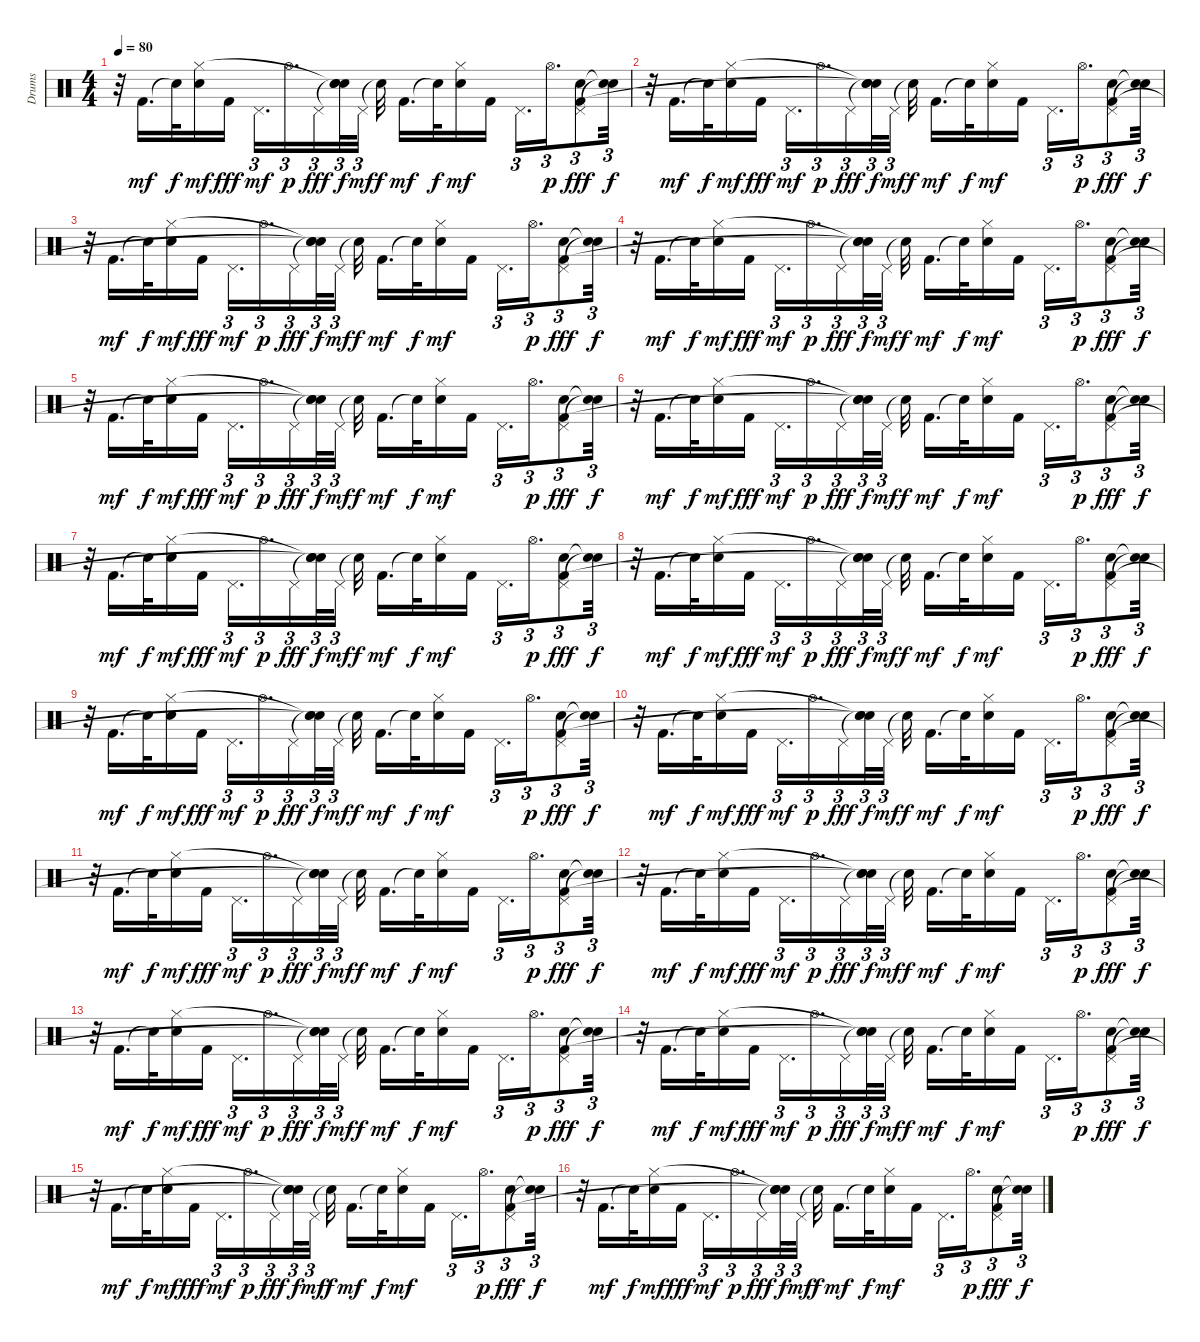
\track ("Drums" "Drums") {instrument percussion}
\staff {score}
\articulation defaults
\ts (4 4)
\tempo 80
\clef neutral
\ks c
r.32{dy f} "Kick (hit) 2".16{d dy mf} "Snare (hit)"{t}.32{dy f} ("Electric Snare (hit)" "Hi-Hat (closed)").16{dy mf} "Kick (hit) 2".16{dy fff} "Pedal Hi-Hat (hit)".16{d tu (3 2) dy mf} "Hi-Hat (open)".16{d tu (3 2) dy p} "Pedal Hi-Hat (hit)".16{tu (3 2) dy fff} ("Snare (hit)"{t} "Snare (hit)"{t} "Snare (hit)"{t}).32{tu (3 2) dy f beam splitsecondary} "Pedal Hi-Hat (hit)".32{tu (3 2) dy mf} "Snare (hit)"{t}.32{dy f} "Kick (hit) 2".16{d dy mf} "Snare (hit)"{t}.32{dy f} ("Electric Snare (hit)" "Hi-Hat (closed)").16{dy mf} "Kick (hit) 2".16 "Pedal Hi-Hat (hit)".16{d tu (3 2)} "Hi-Hat (open)".16{d tu (3 2) dy p} ("Electric Snare (hit)" "Pedal Hi-Hat (hit)" "Kick (hit) 2").8{tu (3 2) dy fff} ("Snare (hit)"{t} "Snare (hit)"{t}).32{tu (3 2) dy f} |
r.32 "Kick (hit) 2".16{d dy mf} "Snare (hit)"{t}.32{dy f} ("Electric Snare (hit)" "Hi-Hat (closed)").16{dy mf} "Kick (hit) 2".16{dy fff} "Pedal Hi-Hat (hit)".16{d tu (3 2) dy mf} "Hi-Hat (open)".16{d tu (3 2) dy p} "Pedal Hi-Hat (hit)".16{tu (3 2) dy fff} ("Snare (hit)"{t} "Snare (hit)"{t} "Snare (hit)"{t}).32{tu (3 2) dy f beam splitsecondary} "Pedal Hi-Hat (hit)".32{tu (3 2) dy mf} "Snare (hit)"{t}.32{dy f} "Kick (hit) 2".16{d dy mf} "Snare (hit)"{t}.32{dy f} ("Electric Snare (hit)" "Hi-Hat (closed)").16{dy mf} "Kick (hit) 2".16 "Pedal Hi-Hat (hit)".16{d tu (3 2)} "Hi-Hat (open)".16{d tu (3 2) dy p} ("Electric Snare (hit)" "Pedal Hi-Hat (hit)" "Kick (hit) 2").8{tu (3 2) dy fff} ("Snare (hit)"{t} "Snare (hit)"{t}).32{tu (3 2) dy f} |
r.32 "Kick (hit) 2".16{d dy mf} "Snare (hit)"{t}.32{dy f} ("Electric Snare (hit)" "Hi-Hat (closed)").16{dy mf} "Kick (hit) 2".16{dy fff} "Pedal Hi-Hat (hit)".16{d tu (3 2) dy mf} "Hi-Hat (open)".16{d tu (3 2) dy p} "Pedal Hi-Hat (hit)".16{tu (3 2) dy fff} ("Snare (hit)"{t} "Snare (hit)"{t} "Snare (hit)"{t}).32{tu (3 2) dy f beam splitsecondary} "Pedal Hi-Hat (hit)".32{tu (3 2) dy mf} "Snare (hit)"{t}.32{dy f} "Kick (hit) 2".16{d dy mf} "Snare (hit)"{t}.32{dy f} ("Electric Snare (hit)" "Hi-Hat (closed)").16{dy mf} "Kick (hit) 2".16 "Pedal Hi-Hat (hit)".16{d tu (3 2)} "Hi-Hat (open)".16{d tu (3 2) dy p} ("Electric Snare (hit)" "Pedal Hi-Hat (hit)" "Kick (hit) 2").8{tu (3 2) dy fff} ("Snare (hit)"{t} "Snare (hit)"{t}).32{tu (3 2) dy f} |
r.32 "Kick (hit) 2".16{d dy mf} "Snare (hit)"{t}.32{dy f} ("Electric Snare (hit)" "Hi-Hat (closed)").16{dy mf} "Kick (hit) 2".16{dy fff} "Pedal Hi-Hat (hit)".16{d tu (3 2) dy mf} "Hi-Hat (open)".16{d tu (3 2) dy p} "Pedal Hi-Hat (hit)".16{tu (3 2) dy fff} ("Snare (hit)"{t} "Snare (hit)"{t} "Snare (hit)"{t}).32{tu (3 2) dy f beam splitsecondary} "Pedal Hi-Hat (hit)".32{tu (3 2) dy mf} "Snare (hit)"{t}.32{dy f} "Kick (hit) 2".16{d dy mf} "Snare (hit)"{t}.32{dy f} ("Electric Snare (hit)" "Hi-Hat (closed)").16{dy mf} "Kick (hit) 2".16 "Pedal Hi-Hat (hit)".16{d tu (3 2)} "Hi-Hat (open)".16{d tu (3 2) dy p} ("Electric Snare (hit)" "Pedal Hi-Hat (hit)" "Kick (hit) 2").8{tu (3 2) dy fff} ("Snare (hit)"{t} "Snare (hit)"{t}).32{tu (3 2) dy f} |
r.32 "Kick (hit) 2".16{d dy mf} "Snare (hit)"{t}.32{dy f} ("Electric Snare (hit)" "Hi-Hat (closed)").16{dy mf} "Kick (hit) 2".16{dy fff} "Pedal Hi-Hat (hit)".16{d tu (3 2) dy mf} "Hi-Hat (open)".16{d tu (3 2) dy p} "Pedal Hi-Hat (hit)".16{tu (3 2) dy fff} ("Snare (hit)"{t} "Snare (hit)"{t} "Snare (hit)"{t}).32{tu (3 2) dy f beam splitsecondary} "Pedal Hi-Hat (hit)".32{tu (3 2) dy mf} "Snare (hit)"{t}.32{dy f} "Kick (hit) 2".16{d dy mf} "Snare (hit)"{t}.32{dy f} ("Electric Snare (hit)" "Hi-Hat (closed)").16{dy mf} "Kick (hit) 2".16 "Pedal Hi-Hat (hit)".16{d tu (3 2)} "Hi-Hat (open)".16{d tu (3 2) dy p} ("Electric Snare (hit)" "Pedal Hi-Hat (hit)" "Kick (hit) 2").8{tu (3 2) dy fff} ("Snare (hit)"{t} "Snare (hit)"{t}).32{tu (3 2) dy f} |
r.32 "Kick (hit) 2".16{d dy mf} "Snare (hit)"{t}.32{dy f} ("Electric Snare (hit)" "Hi-Hat (closed)").16{dy mf} "Kick (hit) 2".16{dy fff} "Pedal Hi-Hat (hit)".16{d tu (3 2) dy mf} "Hi-Hat (open)".16{d tu (3 2) dy p} "Pedal Hi-Hat (hit)".16{tu (3 2) dy fff} ("Snare (hit)"{t} "Snare (hit)"{t} "Snare (hit)"{t}).32{tu (3 2) dy f beam splitsecondary} "Pedal Hi-Hat (hit)".32{tu (3 2) dy mf} "Snare (hit)"{t}.32{dy f} "Kick (hit) 2".16{d dy mf} "Snare (hit)"{t}.32{dy f} ("Electric Snare (hit)" "Hi-Hat (closed)").16{dy mf} "Kick (hit) 2".16 "Pedal Hi-Hat (hit)".16{d tu (3 2)} "Hi-Hat (open)".16{d tu (3 2) dy p} ("Electric Snare (hit)" "Pedal Hi-Hat (hit)" "Kick (hit) 2").8{tu (3 2) dy fff} ("Snare (hit)"{t} "Snare (hit)"{t}).32{tu (3 2) dy f} |
r.32 "Kick (hit) 2".16{d dy mf} "Snare (hit)"{t}.32{dy f} ("Electric Snare (hit)" "Hi-Hat (closed)").16{dy mf} "Kick (hit) 2".16{dy fff} "Pedal Hi-Hat (hit)".16{d tu (3 2) dy mf} "Hi-Hat (open)".16{d tu (3 2) dy p} "Pedal Hi-Hat (hit)".16{tu (3 2) dy fff} ("Snare (hit)"{t} "Snare (hit)"{t} "Snare (hit)"{t}).32{tu (3 2) dy f beam splitsecondary} "Pedal Hi-Hat (hit)".32{tu (3 2) dy mf} "Snare (hit)"{t}.32{dy f} "Kick (hit) 2".16{d dy mf} "Snare (hit)"{t}.32{dy f} ("Electric Snare (hit)" "Hi-Hat (closed)").16{dy mf} "Kick (hit) 2".16 "Pedal Hi-Hat (hit)".16{d tu (3 2)} "Hi-Hat (open)".16{d tu (3 2) dy p} ("Electric Snare (hit)" "Pedal Hi-Hat (hit)" "Kick (hit) 2").8{tu (3 2) dy fff} ("Snare (hit)"{t} "Snare (hit)"{t}).32{tu (3 2) dy f} |
r.32 "Kick (hit) 2".16{d dy mf} "Snare (hit)"{t}.32{dy f} ("Electric Snare (hit)" "Hi-Hat (closed)").16{dy mf} "Kick (hit) 2".16{dy fff} "Pedal Hi-Hat (hit)".16{d tu (3 2) dy mf} "Hi-Hat (open)".16{d tu (3 2) dy p} "Pedal Hi-Hat (hit)".16{tu (3 2) dy fff} ("Snare (hit)"{t} "Snare (hit)"{t} "Snare (hit)"{t}).32{tu (3 2) dy f beam splitsecondary} "Pedal Hi-Hat (hit)".32{tu (3 2) dy mf} "Snare (hit)"{t}.32{dy f} "Kick (hit) 2".16{d dy mf} "Snare (hit)"{t}.32{dy f} ("Electric Snare (hit)" "Hi-Hat (closed)").16{dy mf} "Kick (hit) 2".16 "Pedal Hi-Hat (hit)".16{d tu (3 2)} "Hi-Hat (open)".16{d tu (3 2) dy p} ("Electric Snare (hit)" "Pedal Hi-Hat (hit)" "Kick (hit) 2").8{tu (3 2) dy fff} ("Snare (hit)"{t} "Snare (hit)"{t}).32{tu (3 2) dy f} |
r.32 "Kick (hit) 2".16{d dy mf} "Snare (hit)"{t}.32{dy f} ("Electric Snare (hit)" "Hi-Hat (closed)").16{dy mf} "Kick (hit) 2".16{dy fff} "Pedal Hi-Hat (hit)".16{d tu (3 2) dy mf} "Hi-Hat (open)".16{d tu (3 2) dy p} "Pedal Hi-Hat (hit)".16{tu (3 2) dy fff} ("Snare (hit)"{t} "Snare (hit)"{t} "Snare (hit)"{t}).32{tu (3 2) dy f beam splitsecondary} "Pedal Hi-Hat (hit)".32{tu (3 2) dy mf} "Snare (hit)"{t}.32{dy f} "Kick (hit) 2".16{d dy mf} "Snare (hit)"{t}.32{dy f} ("Electric Snare (hit)" "Hi-Hat (closed)").16{dy mf} "Kick (hit) 2".16 "Pedal Hi-Hat (hit)".16{d tu (3 2)} "Hi-Hat (open)".16{d tu (3 2) dy p} ("Electric Snare (hit)" "Pedal Hi-Hat (hit)" "Kick (hit) 2").8{tu (3 2) dy fff} ("Snare (hit)"{t} "Snare (hit)"{t}).32{tu (3 2) dy f} |
r.32 "Kick (hit) 2".16{d dy mf} "Snare (hit)"{t}.32{dy f} ("Electric Snare (hit)" "Hi-Hat (closed)").16{dy mf} "Kick (hit) 2".16{dy fff} "Pedal Hi-Hat (hit)".16{d tu (3 2) dy mf} "Hi-Hat (open)".16{d tu (3 2) dy p} "Pedal Hi-Hat (hit)".16{tu (3 2) dy fff} ("Snare (hit)"{t} "Snare (hit)"{t} "Snare (hit)"{t}).32{tu (3 2) dy f beam splitsecondary} "Pedal Hi-Hat (hit)".32{tu (3 2) dy mf} "Snare (hit)"{t}.32{dy f} "Kick (hit) 2".16{d dy mf} "Snare (hit)"{t}.32{dy f} ("Electric Snare (hit)" "Hi-Hat (closed)").16{dy mf} "Kick (hit) 2".16 "Pedal Hi-Hat (hit)".16{d tu (3 2)} "Hi-Hat (open)".16{d tu (3 2) dy p} ("Electric Snare (hit)" "Pedal Hi-Hat (hit)" "Kick (hit) 2").8{tu (3 2) dy fff} ("Snare (hit)"{t} "Snare (hit)"{t}).32{tu (3 2) dy f} |
r.32 "Kick (hit) 2".16{d dy mf} "Snare (hit)"{t}.32{dy f} ("Electric Snare (hit)" "Hi-Hat (closed)").16{dy mf} "Kick (hit) 2".16{dy fff} "Pedal Hi-Hat (hit)".16{d tu (3 2) dy mf} "Hi-Hat (open)".16{d tu (3 2) dy p} "Pedal Hi-Hat (hit)".16{tu (3 2) dy fff} ("Snare (hit)"{t} "Snare (hit)"{t} "Snare (hit)"{t}).32{tu (3 2) dy f beam splitsecondary} "Pedal Hi-Hat (hit)".32{tu (3 2) dy mf} "Snare (hit)"{t}.32{dy f} "Kick (hit) 2".16{d dy mf} "Snare (hit)"{t}.32{dy f} ("Electric Snare (hit)" "Hi-Hat (closed)").16{dy mf} "Kick (hit) 2".16 "Pedal Hi-Hat (hit)".16{d tu (3 2)} "Hi-Hat (open)".16{d tu (3 2) dy p} ("Electric Snare (hit)" "Pedal Hi-Hat (hit)" "Kick (hit) 2").8{tu (3 2) dy fff} ("Snare (hit)"{t} "Snare (hit)"{t}).32{tu (3 2) dy f} |
r.32 "Kick (hit) 2".16{d dy mf} "Snare (hit)"{t}.32{dy f} ("Electric Snare (hit)" "Hi-Hat (closed)").16{dy mf} "Kick (hit) 2".16{dy fff} "Pedal Hi-Hat (hit)".16{d tu (3 2) dy mf} "Hi-Hat (open)".16{d tu (3 2) dy p} "Pedal Hi-Hat (hit)".16{tu (3 2) dy fff} ("Snare (hit)"{t} "Snare (hit)"{t} "Snare (hit)"{t}).32{tu (3 2) dy f beam splitsecondary} "Pedal Hi-Hat (hit)".32{tu (3 2) dy mf} "Snare (hit)"{t}.32{dy f} "Kick (hit) 2".16{d dy mf} "Snare (hit)"{t}.32{dy f} ("Electric Snare (hit)" "Hi-Hat (closed)").16{dy mf} "Kick (hit) 2".16 "Pedal Hi-Hat (hit)".16{d tu (3 2)} "Hi-Hat (open)".16{d tu (3 2) dy p} ("Electric Snare (hit)" "Pedal Hi-Hat (hit)" "Kick (hit) 2").8{tu (3 2) dy fff} ("Snare (hit)"{t} "Snare (hit)"{t}).32{tu (3 2) dy f} |
r.32 "Kick (hit) 2".16{d dy mf} "Snare (hit)"{t}.32{dy f} ("Electric Snare (hit)" "Hi-Hat (closed)").16{dy mf} "Kick (hit) 2".16{dy fff} "Pedal Hi-Hat (hit)".16{d tu (3 2) dy mf} "Hi-Hat (open)".16{d tu (3 2) dy p} "Pedal Hi-Hat (hit)".16{tu (3 2) dy fff} ("Snare (hit)"{t} "Snare (hit)"{t} "Snare (hit)"{t}).32{tu (3 2) dy f beam splitsecondary} "Pedal Hi-Hat (hit)".32{tu (3 2) dy mf} "Snare (hit)"{t}.32{dy f} "Kick (hit) 2".16{d dy mf} "Snare (hit)"{t}.32{dy f} ("Electric Snare (hit)" "Hi-Hat (closed)").16{dy mf} "Kick (hit) 2".16 "Pedal Hi-Hat (hit)".16{d tu (3 2)} "Hi-Hat (open)".16{d tu (3 2) dy p} ("Electric Snare (hit)" "Pedal Hi-Hat (hit)" "Kick (hit) 2").8{tu (3 2) dy fff} ("Snare (hit)"{t} "Snare (hit)"{t}).32{tu (3 2) dy f} |
r.32 "Kick (hit) 2".16{d dy mf} "Snare (hit)"{t}.32{dy f} ("Electric Snare (hit)" "Hi-Hat (closed)").16{dy mf} "Kick (hit) 2".16{dy fff} "Pedal Hi-Hat (hit)".16{d tu (3 2) dy mf} "Hi-Hat (open)".16{d tu (3 2) dy p} "Pedal Hi-Hat (hit)".16{tu (3 2) dy fff} ("Snare (hit)"{t} "Snare (hit)"{t} "Snare (hit)"{t}).32{tu (3 2) dy f beam splitsecondary} "Pedal Hi-Hat (hit)".32{tu (3 2) dy mf} "Snare (hit)"{t}.32{dy f} "Kick (hit) 2".16{d dy mf} "Snare (hit)"{t}.32{dy f} ("Electric Snare (hit)" "Hi-Hat (closed)").16{dy mf} "Kick (hit) 2".16 "Pedal Hi-Hat (hit)".16{d tu (3 2)} "Hi-Hat (open)".16{d tu (3 2) dy p} ("Electric Snare (hit)" "Pedal Hi-Hat (hit)" "Kick (hit) 2").8{tu (3 2) dy fff} ("Snare (hit)"{t} "Snare (hit)"{t}).32{tu (3 2) dy f} |
r.32 "Kick (hit) 2".16{d dy mf} "Snare (hit)"{t}.32{dy f} ("Electric Snare (hit)" "Hi-Hat (closed)").16{dy mf} "Kick (hit) 2".16{dy fff} "Pedal Hi-Hat (hit)".16{d tu (3 2) dy mf} "Hi-Hat (open)".16{d tu (3 2) dy p} "Pedal Hi-Hat (hit)".16{tu (3 2) dy fff} ("Snare (hit)"{t} "Snare (hit)"{t} "Snare (hit)"{t}).32{tu (3 2) dy f beam splitsecondary} "Pedal Hi-Hat (hit)".32{tu (3 2) dy mf} "Snare (hit)"{t}.32{dy f} "Kick (hit) 2".16{d dy mf} "Snare (hit)"{t}.32{dy f} ("Electric Snare (hit)" "Hi-Hat (closed)").16{dy mf} "Kick (hit) 2".16 "Pedal Hi-Hat (hit)".16{d tu (3 2)} "Hi-Hat (open)".16{d tu (3 2) dy p} ("Electric Snare (hit)" "Pedal Hi-Hat (hit)" "Kick (hit) 2").8{tu (3 2) dy fff} ("Snare (hit)"{t} "Snare (hit)"{t}).32{tu (3 2) dy f} |
r.32 "Kick (hit) 2".16{d dy mf} "Snare (hit)"{t}.32{dy f} ("Electric Snare (hit)" "Hi-Hat (closed)").16{dy mf} "Kick (hit) 2".16{dy fff} "Pedal Hi-Hat (hit)".16{d tu (3 2) dy mf} "Hi-Hat (open)".16{d tu (3 2) dy p} "Pedal Hi-Hat (hit)".16{tu (3 2) dy fff} ("Snare (hit)"{t} "Snare (hit)"{t} "Snare (hit)"{t}).32{tu (3 2) dy f beam splitsecondary} "Pedal Hi-Hat (hit)".32{tu (3 2) dy mf} "Snare (hit)"{t}.32{dy f} "Kick (hit) 2".16{d dy mf} "Snare (hit)"{t}.32{dy f} ("Electric Snare (hit)" "Hi-Hat (closed)").16{dy mf} "Kick (hit) 2".16 "Pedal Hi-Hat (hit)".16{d tu (3 2)} "Hi-Hat (open)".16{d tu (3 2) dy p} ("Electric Snare (hit)" "Pedal Hi-Hat (hit)" "Kick (hit) 2").8{tu (3 2) dy fff} ("Snare (hit)"{t} "Snare (hit)"{t}).32{tu (3 2) dy f}
